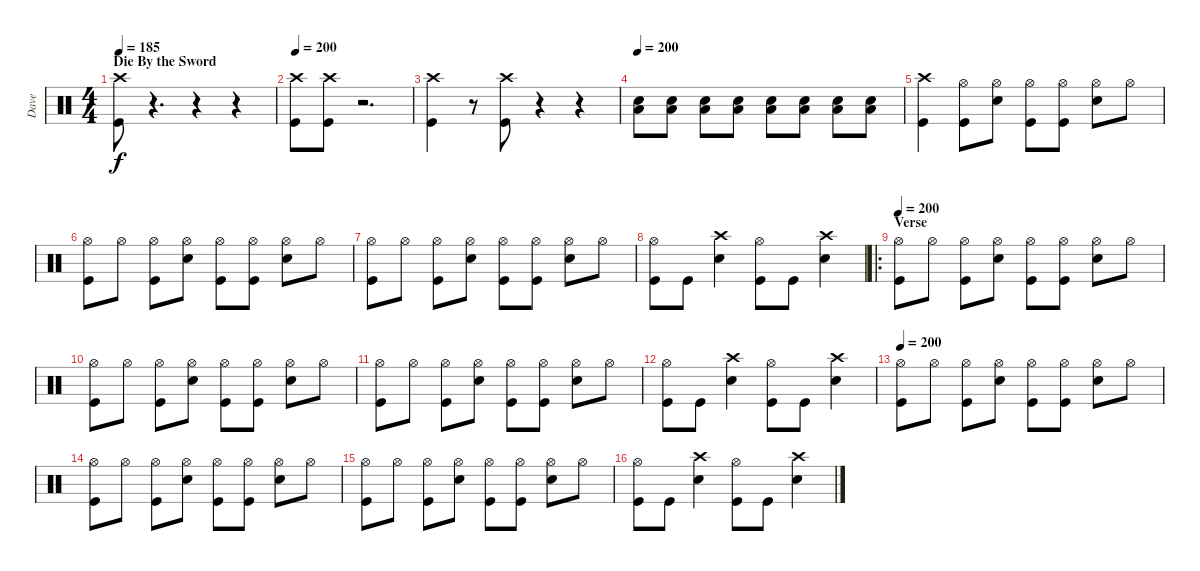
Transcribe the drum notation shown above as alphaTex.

\track ("Dave" "Dave") {instrument percussion}
\staff {score}
\articulation defaults
\ts (4 4)
\section ("" "Die By the Sword")
\tempo 185
\tempo 200
\tempo 185
\clef neutral
\ks c
("Crash high (hit)" "Kick (hit)").8{dy f} r.4{d} r.4 r.4 |
\tempo 200
("Crash high (hit)" "Kick (hit)").8 ("Crash high (hit)" "Kick (hit)").8 r.2{d} |
("Crash high (hit)" "Kick (hit)").4 r.8 ("Crash high (hit)" "Kick (hit)").8 r.4 r.4 |
\tempo 200
("Low Floor Tom (hit)" "Snare (hit) 2").8 ("Low Floor Tom (hit)" "Snare (hit) 2").8 ("Low Floor Tom (hit)" "Snare (hit) 2").8 ("Low Floor Tom (hit)" "Snare (hit) 2").8 ("Low Floor Tom (hit)" "Snare (hit) 2").8 ("Low Floor Tom (hit)" "Snare (hit) 2").8 ("Low Floor Tom (hit)" "Snare (hit) 2").8 ("Low Floor Tom (hit)" "Snare (hit) 2").8 |
("Crash high (hit)" "Kick (hit)").4 ("Hi-Hat (open)" "Kick (hit)").8 ("Hi-Hat (open)" "Snare (hit) 2").8 ("Hi-Hat (open)" "Kick (hit)").8 ("Hi-Hat (open)" "Kick (hit)").8 ("Hi-Hat (open)" "Snare (hit) 2").8 "Hi-Hat (open)".8 |
("Hi-Hat (open)" "Kick (hit)").8 "Hi-Hat (open)".8 ("Hi-Hat (open)" "Kick (hit)").8 ("Hi-Hat (open)" "Snare (hit) 2").8 ("Hi-Hat (open)" "Kick (hit)").8 ("Hi-Hat (open)" "Kick (hit)").8 ("Hi-Hat (open)" "Snare (hit) 2").8 "Hi-Hat (open)".8 |
("Hi-Hat (open)" "Kick (hit)").8 "Hi-Hat (open)".8 ("Hi-Hat (open)" "Kick (hit)").8 ("Hi-Hat (open)" "Snare (hit) 2").8 ("Hi-Hat (open)" "Kick (hit)").8 ("Hi-Hat (open)" "Kick (hit)").8 ("Hi-Hat (open)" "Snare (hit) 2").8 "Hi-Hat (open)".8 |
("Hi-Hat (open)" "Kick (hit)").8 "Kick (hit)".8 ("Crash high (hit)" "Snare (hit) 2").4 ("Hi-Hat (open)" "Kick (hit)").8 "Kick (hit)".8 ("Crash high (hit)" "Snare (hit) 2").4 |
\ro
\section ("" "Verse")
\tempo 200
("Hi-Hat (open)" "Kick (hit)").8 "Hi-Hat (open)".8 ("Hi-Hat (open)" "Kick (hit)").8 ("Hi-Hat (open)" "Snare (hit) 2").8 ("Hi-Hat (open)" "Kick (hit)").8 ("Hi-Hat (open)" "Kick (hit)").8 ("Hi-Hat (open)" "Snare (hit) 2").8 "Hi-Hat (open)".8 |
("Hi-Hat (open)" "Kick (hit)").8 "Hi-Hat (open)".8 ("Hi-Hat (open)" "Kick (hit)").8 ("Hi-Hat (open)" "Snare (hit) 2").8 ("Hi-Hat (open)" "Kick (hit)").8 ("Hi-Hat (open)" "Kick (hit)").8 ("Hi-Hat (open)" "Snare (hit) 2").8 "Hi-Hat (open)".8 |
("Hi-Hat (open)" "Kick (hit)").8 "Hi-Hat (open)".8 ("Hi-Hat (open)" "Kick (hit)").8 ("Hi-Hat (open)" "Snare (hit) 2").8 ("Hi-Hat (open)" "Kick (hit)").8 ("Hi-Hat (open)" "Kick (hit)").8 ("Hi-Hat (open)" "Snare (hit) 2").8 "Hi-Hat (open)".8 |
("Hi-Hat (open)" "Kick (hit)").8 "Kick (hit)".8 ("Crash high (hit)" "Snare (hit) 2").4 ("Hi-Hat (open)" "Kick (hit)").8 "Kick (hit)".8 ("Crash high (hit)" "Snare (hit) 2").4 |
\tempo 200
("Hi-Hat (open)" "Kick (hit)").8 "Hi-Hat (open)".8 ("Hi-Hat (open)" "Kick (hit)").8 ("Hi-Hat (open)" "Snare (hit) 2").8 ("Hi-Hat (open)" "Kick (hit)").8 ("Hi-Hat (open)" "Kick (hit)").8 ("Hi-Hat (open)" "Snare (hit) 2").8 "Hi-Hat (open)".8 |
("Hi-Hat (open)" "Kick (hit)").8 "Hi-Hat (open)".8 ("Hi-Hat (open)" "Kick (hit)").8 ("Hi-Hat (open)" "Snare (hit) 2").8 ("Hi-Hat (open)" "Kick (hit)").8 ("Hi-Hat (open)" "Kick (hit)").8 ("Hi-Hat (open)" "Snare (hit) 2").8 "Hi-Hat (open)".8 |
("Hi-Hat (open)" "Kick (hit)").8 "Hi-Hat (open)".8 ("Hi-Hat (open)" "Kick (hit)").8 ("Hi-Hat (open)" "Snare (hit) 2").8 ("Hi-Hat (open)" "Kick (hit)").8 ("Hi-Hat (open)" "Kick (hit)").8 ("Hi-Hat (open)" "Snare (hit) 2").8 "Hi-Hat (open)".8 |
("Hi-Hat (open)" "Kick (hit)").8 "Kick (hit)".8 ("Crash high (hit)" "Snare (hit) 2").4 ("Hi-Hat (open)" "Kick (hit)").8 "Kick (hit)".8 ("Crash high (hit)" "Snare (hit) 2").4
